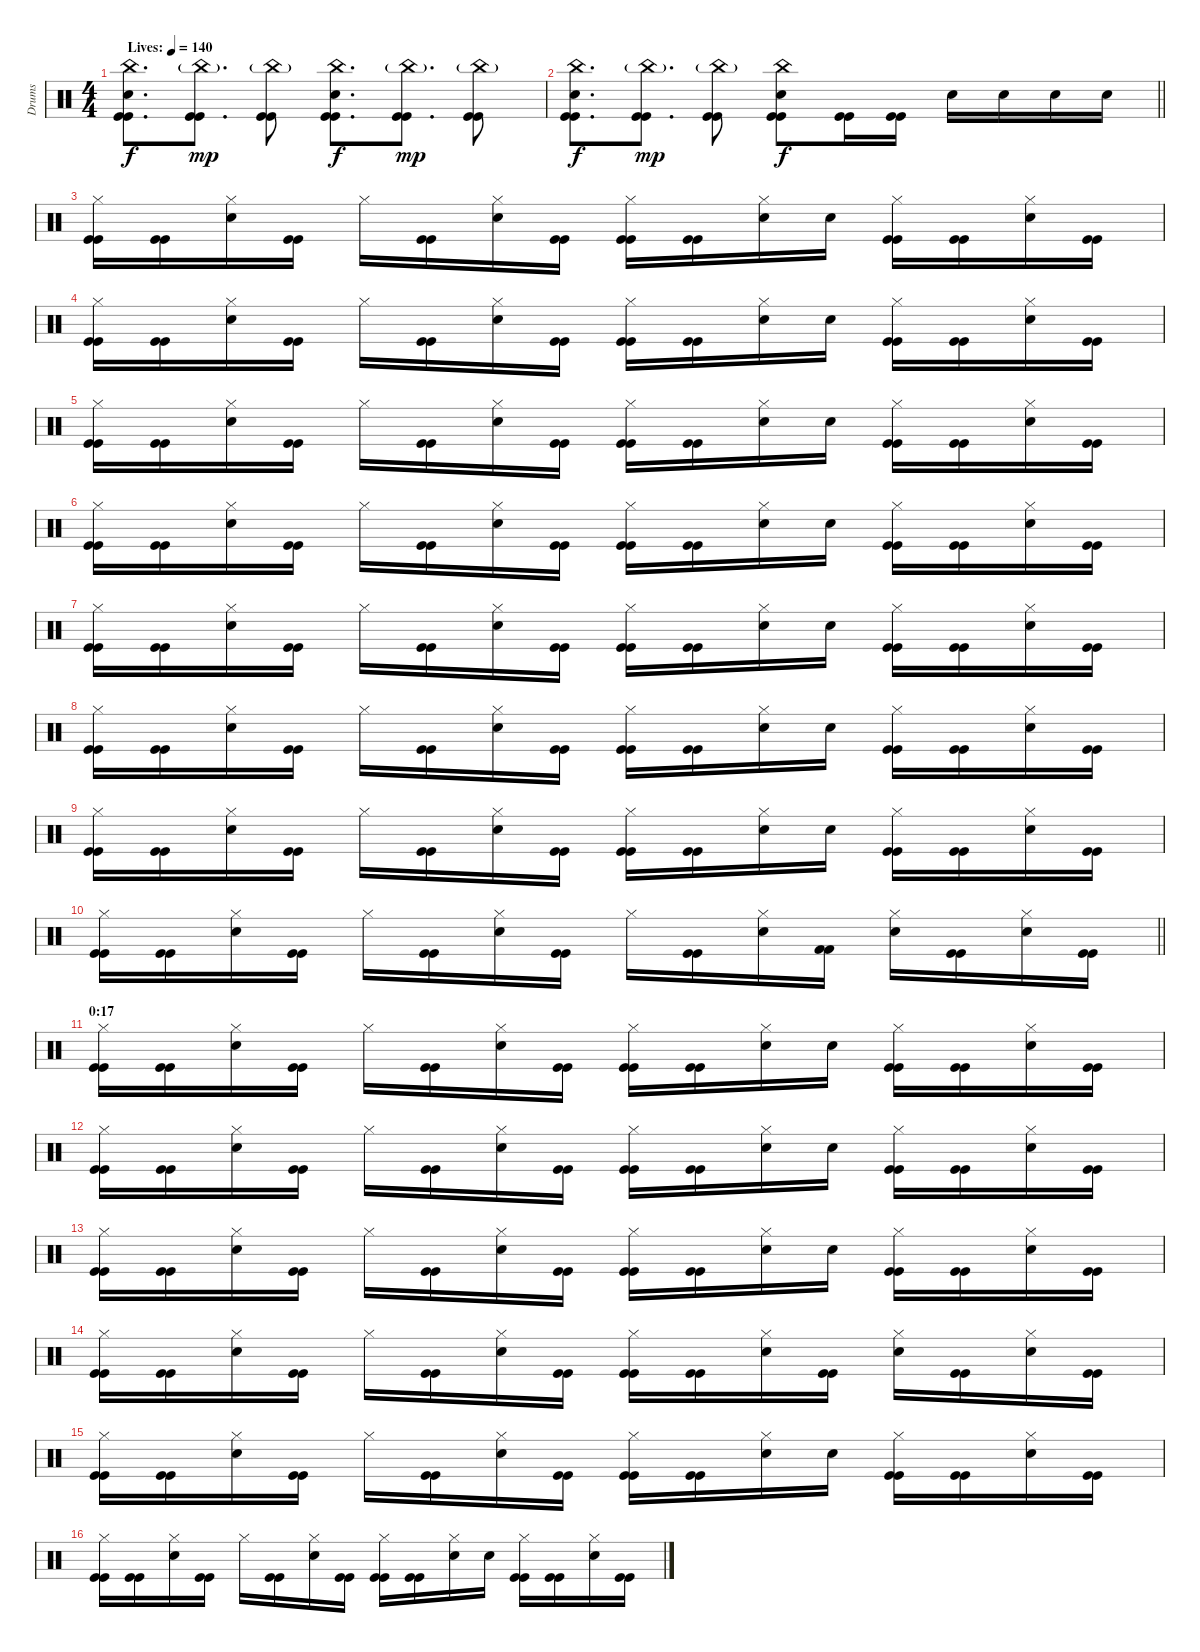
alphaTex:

\track ("Drums" "Drums") {instrument percussion}
\staff {score}
\articulation defaults
\ts (4 4)
\tempo (140 "Lives:")
\clef neutral
\ks c
("China (hit)" "Snare (hit) 2" "Kick (hit)" "Kick (hit)").8{d dy f} ("China (hit)"{g} "Kick (hit)" "Kick (hit)").8{d dy mp} ("China (hit)"{g} "Kick (hit)" "Kick (hit)").8 ("China (hit)" "Snare (hit) 2" "Kick (hit)" "Kick (hit)").8{d dy f} ("China (hit)"{g} "Kick (hit)" "Kick (hit)").8{d dy mp} ("China (hit)"{g} "Kick (hit)" "Kick (hit)").8 |
\barLineRight lightlight
("China (hit)" "Snare (hit) 2" "Kick (hit)" "Kick (hit)").8{d dy f} ("China (hit)"{g} "Kick (hit)" "Kick (hit)").8{d dy mp} ("China (hit)"{g} "Kick (hit)" "Kick (hit)").8 ("China (hit)" "Snare (hit) 2" "Kick (hit)" "Kick (hit)").8{dy f} ("Kick (hit)" "Kick (hit)").16 ("Kick (hit)" "Kick (hit)").16 "Snare (hit) 2".16 "Snare (hit) 2".16 "Snare (hit) 2".16 "Snare (hit) 2".16 |
\section ("" "")
("Hi-Hat (closed)" "Kick (hit)" "Kick (hit)").16 ("Kick (hit)" "Kick (hit)").16 ("Hi-Hat (closed)" "Snare (hit) 2").16 ("Kick (hit)" "Kick (hit)").16 "Hi-Hat (closed)".16 ("Kick (hit)" "Kick (hit)").16 ("Hi-Hat (closed)" "Snare (hit) 2").16 ("Kick (hit)" "Kick (hit)").16 ("Hi-Hat (closed)" "Kick (hit)" "Kick (hit)").16 ("Kick (hit)" "Kick (hit)").16 ("Hi-Hat (closed)" "Snare (hit) 2").16 "Snare (hit) 2".16 ("Hi-Hat (closed)" "Kick (hit)" "Kick (hit)").16 ("Kick (hit)" "Kick (hit)").16 ("Hi-Hat (closed)" "Snare (hit) 2").16 ("Kick (hit)" "Kick (hit)").16 |
("Hi-Hat (closed)" "Kick (hit)" "Kick (hit)").16 ("Kick (hit)" "Kick (hit)").16 ("Hi-Hat (closed)" "Snare (hit) 2").16 ("Kick (hit)" "Kick (hit)").16 "Hi-Hat (closed)".16 ("Kick (hit)" "Kick (hit)").16 ("Hi-Hat (closed)" "Snare (hit) 2").16 ("Kick (hit)" "Kick (hit)").16 ("Hi-Hat (closed)" "Kick (hit)" "Kick (hit)").16 ("Kick (hit)" "Kick (hit)").16 ("Hi-Hat (closed)" "Snare (hit) 2").16 "Snare (hit) 2".16 ("Hi-Hat (closed)" "Kick (hit)" "Kick (hit)").16 ("Kick (hit)" "Kick (hit)").16 ("Hi-Hat (closed)" "Snare (hit) 2").16 ("Kick (hit)" "Kick (hit)").16 |
("Hi-Hat (closed)" "Kick (hit)" "Kick (hit)").16 ("Kick (hit)" "Kick (hit)").16 ("Hi-Hat (closed)" "Snare (hit) 2").16 ("Kick (hit)" "Kick (hit)").16 "Hi-Hat (closed)".16 ("Kick (hit)" "Kick (hit)").16 ("Hi-Hat (closed)" "Snare (hit) 2").16 ("Kick (hit)" "Kick (hit)").16 ("Hi-Hat (closed)" "Kick (hit)" "Kick (hit)").16 ("Kick (hit)" "Kick (hit)").16 ("Hi-Hat (closed)" "Snare (hit) 2").16 "Snare (hit) 2".16 ("Hi-Hat (closed)" "Kick (hit)" "Kick (hit)").16 ("Kick (hit)" "Kick (hit)").16 ("Hi-Hat (closed)" "Snare (hit) 2").16 ("Kick (hit)" "Kick (hit)").16 |
("Hi-Hat (closed)" "Kick (hit)" "Kick (hit)").16 ("Kick (hit)" "Kick (hit)").16 ("Hi-Hat (closed)" "Snare (hit) 2").16 ("Kick (hit)" "Kick (hit)").16 "Hi-Hat (closed)".16 ("Kick (hit)" "Kick (hit)").16 ("Hi-Hat (closed)" "Snare (hit) 2").16 ("Kick (hit)" "Kick (hit)").16 ("Hi-Hat (closed)" "Kick (hit)" "Kick (hit)").16 ("Kick (hit)" "Kick (hit)").16 ("Hi-Hat (closed)" "Snare (hit) 2").16 "Snare (hit) 2".16 ("Hi-Hat (closed)" "Kick (hit)" "Kick (hit)").16 ("Kick (hit)" "Kick (hit)").16 ("Hi-Hat (closed)" "Snare (hit) 2").16 ("Kick (hit)" "Kick (hit)").16 |
("Hi-Hat (closed)" "Kick (hit)" "Kick (hit)").16 ("Kick (hit)" "Kick (hit)").16 ("Hi-Hat (closed)" "Snare (hit) 2").16 ("Kick (hit)" "Kick (hit)").16 "Hi-Hat (closed)".16 ("Kick (hit)" "Kick (hit)").16 ("Hi-Hat (closed)" "Snare (hit) 2").16 ("Kick (hit)" "Kick (hit)").16 ("Hi-Hat (closed)" "Kick (hit)" "Kick (hit)").16 ("Kick (hit)" "Kick (hit)").16 ("Hi-Hat (closed)" "Snare (hit) 2").16 "Snare (hit) 2".16 ("Hi-Hat (closed)" "Kick (hit)" "Kick (hit)").16 ("Kick (hit)" "Kick (hit)").16 ("Hi-Hat (closed)" "Snare (hit) 2").16 ("Kick (hit)" "Kick (hit)").16 |
("Hi-Hat (closed)" "Kick (hit)" "Kick (hit)").16 ("Kick (hit)" "Kick (hit)").16 ("Hi-Hat (closed)" "Snare (hit) 2").16 ("Kick (hit)" "Kick (hit)").16 "Hi-Hat (closed)".16 ("Kick (hit)" "Kick (hit)").16 ("Hi-Hat (closed)" "Snare (hit) 2").16 ("Kick (hit)" "Kick (hit)").16 ("Hi-Hat (closed)" "Kick (hit)" "Kick (hit)").16 ("Kick (hit)" "Kick (hit)").16 ("Hi-Hat (closed)" "Snare (hit) 2").16 "Snare (hit) 2".16 ("Hi-Hat (closed)" "Kick (hit)" "Kick (hit)").16 ("Kick (hit)" "Kick (hit)").16 ("Hi-Hat (closed)" "Snare (hit) 2").16 ("Kick (hit)" "Kick (hit)").16 |
("Hi-Hat (closed)" "Kick (hit)" "Kick (hit)").16 ("Kick (hit)" "Kick (hit)").16 ("Hi-Hat (closed)" "Snare (hit) 2").16 ("Kick (hit)" "Kick (hit)").16 "Hi-Hat (closed)".16 ("Kick (hit)" "Kick (hit)").16 ("Hi-Hat (closed)" "Snare (hit) 2").16 ("Kick (hit)" "Kick (hit)").16 ("Hi-Hat (closed)" "Kick (hit)" "Kick (hit)").16 ("Kick (hit)" "Kick (hit)").16 ("Hi-Hat (closed)" "Snare (hit) 2").16 "Snare (hit) 2".16 ("Hi-Hat (closed)" "Kick (hit)" "Kick (hit)").16 ("Kick (hit)" "Kick (hit)").16 ("Hi-Hat (closed)" "Snare (hit) 2").16 ("Kick (hit)" "Kick (hit)").16 |
\barLineRight lightlight
("Hi-Hat (closed)" "Kick (hit)" "Kick (hit)").16 ("Kick (hit)" "Kick (hit)").16 ("Hi-Hat (closed)" "Snare (hit) 2").16 ("Kick (hit)" "Kick (hit)").16 "Hi-Hat (closed)".16 ("Kick (hit)" "Kick (hit)").16 ("Hi-Hat (closed)" "Snare (hit) 2").16 ("Kick (hit)" "Kick (hit)").16 "Hi-Hat (closed)".16 ("Kick (hit)" "Kick (hit)").16 ("Hi-Hat (closed)" "Snare (hit) 2").16 ("Kick (hit) 2" "Kick (hit) 2").16 ("Hi-Hat (closed)" "Snare (hit) 2").16 ("Kick (hit)" "Kick (hit)").16 ("Hi-Hat (closed)" "Snare (hit) 2").16 ("Kick (hit)" "Kick (hit)").16 |
\section ("" "0:17")
("Hi-Hat (closed)" "Kick (hit)" "Kick (hit)").16 ("Kick (hit)" "Kick (hit)").16 ("Hi-Hat (closed)" "Snare (hit) 2").16 ("Kick (hit)" "Kick (hit)").16 "Hi-Hat (closed)".16 ("Kick (hit)" "Kick (hit)").16 ("Hi-Hat (closed)" "Snare (hit) 2").16 ("Kick (hit)" "Kick (hit)").16 ("Hi-Hat (closed)" "Kick (hit)" "Kick (hit)").16 ("Kick (hit)" "Kick (hit)").16 ("Hi-Hat (closed)" "Snare (hit) 2").16 "Snare (hit) 2".16 ("Hi-Hat (closed)" "Kick (hit)" "Kick (hit)").16 ("Kick (hit)" "Kick (hit)").16 ("Hi-Hat (closed)" "Snare (hit) 2").16 ("Kick (hit)" "Kick (hit)").16 |
("Hi-Hat (closed)" "Kick (hit)" "Kick (hit)").16 ("Kick (hit)" "Kick (hit)").16 ("Hi-Hat (closed)" "Snare (hit) 2").16 ("Kick (hit)" "Kick (hit)").16 "Hi-Hat (closed)".16 ("Kick (hit)" "Kick (hit)").16 ("Hi-Hat (closed)" "Snare (hit) 2").16 ("Kick (hit)" "Kick (hit)").16 ("Hi-Hat (closed)" "Kick (hit)" "Kick (hit)").16 ("Kick (hit)" "Kick (hit)").16 ("Hi-Hat (closed)" "Snare (hit) 2").16 "Snare (hit) 2".16 ("Hi-Hat (closed)" "Kick (hit)" "Kick (hit)").16 ("Kick (hit)" "Kick (hit)").16 ("Hi-Hat (closed)" "Snare (hit) 2").16 ("Kick (hit)" "Kick (hit)").16 |
("Hi-Hat (closed)" "Kick (hit)" "Kick (hit)").16 ("Kick (hit)" "Kick (hit)").16 ("Hi-Hat (closed)" "Snare (hit) 2").16 ("Kick (hit)" "Kick (hit)").16 "Hi-Hat (closed)".16 ("Kick (hit)" "Kick (hit)").16 ("Hi-Hat (closed)" "Snare (hit) 2").16 ("Kick (hit)" "Kick (hit)").16 ("Hi-Hat (closed)" "Kick (hit)" "Kick (hit)").16 ("Kick (hit)" "Kick (hit)").16 ("Hi-Hat (closed)" "Snare (hit) 2").16 "Snare (hit) 2".16 ("Hi-Hat (closed)" "Kick (hit)" "Kick (hit)").16 ("Kick (hit)" "Kick (hit)").16 ("Hi-Hat (closed)" "Snare (hit) 2").16 ("Kick (hit)" "Kick (hit)").16 |
("Hi-Hat (closed)" "Kick (hit)" "Kick (hit)").16 ("Kick (hit)" "Kick (hit)").16 ("Hi-Hat (closed)" "Snare (hit) 2").16 ("Kick (hit)" "Kick (hit)").16 "Hi-Hat (closed)".16 ("Kick (hit)" "Kick (hit)").16 ("Hi-Hat (closed)" "Snare (hit) 2").16 ("Kick (hit)" "Kick (hit)").16 ("Hi-Hat (closed)" "Kick (hit)" "Kick (hit)").16 ("Kick (hit)" "Kick (hit)").16 ("Hi-Hat (closed)" "Snare (hit) 2").16 ("Kick (hit)" "Kick (hit)").16 ("Hi-Hat (closed)" "Snare (hit) 2").16 ("Kick (hit)" "Kick (hit)").16 ("Hi-Hat (closed)" "Snare (hit) 2").16 ("Kick (hit)" "Kick (hit)").16 |
("Hi-Hat (closed)" "Kick (hit)" "Kick (hit)").16 ("Kick (hit)" "Kick (hit)").16 ("Hi-Hat (closed)" "Snare (hit) 2").16 ("Kick (hit)" "Kick (hit)").16 "Hi-Hat (closed)".16 ("Kick (hit)" "Kick (hit)").16 ("Hi-Hat (closed)" "Snare (hit) 2").16 ("Kick (hit)" "Kick (hit)").16 ("Hi-Hat (closed)" "Kick (hit)" "Kick (hit)").16 ("Kick (hit)" "Kick (hit)").16 ("Hi-Hat (closed)" "Snare (hit) 2").16 "Snare (hit) 2".16 ("Hi-Hat (closed)" "Kick (hit)" "Kick (hit)").16 ("Kick (hit)" "Kick (hit)").16 ("Hi-Hat (closed)" "Snare (hit) 2").16 ("Kick (hit)" "Kick (hit)").16 |
("Hi-Hat (closed)" "Kick (hit)" "Kick (hit)").16 ("Kick (hit)" "Kick (hit)").16 ("Hi-Hat (closed)" "Snare (hit) 2").16 ("Kick (hit)" "Kick (hit)").16 "Hi-Hat (closed)".16 ("Kick (hit)" "Kick (hit)").16 ("Hi-Hat (closed)" "Snare (hit) 2").16 ("Kick (hit)" "Kick (hit)").16 ("Hi-Hat (closed)" "Kick (hit)" "Kick (hit)").16 ("Kick (hit)" "Kick (hit)").16 ("Hi-Hat (closed)" "Snare (hit) 2").16 "Snare (hit) 2".16 ("Hi-Hat (closed)" "Kick (hit)" "Kick (hit)").16 ("Kick (hit)" "Kick (hit)").16 ("Hi-Hat (closed)" "Snare (hit) 2").16 ("Kick (hit)" "Kick (hit)").16
